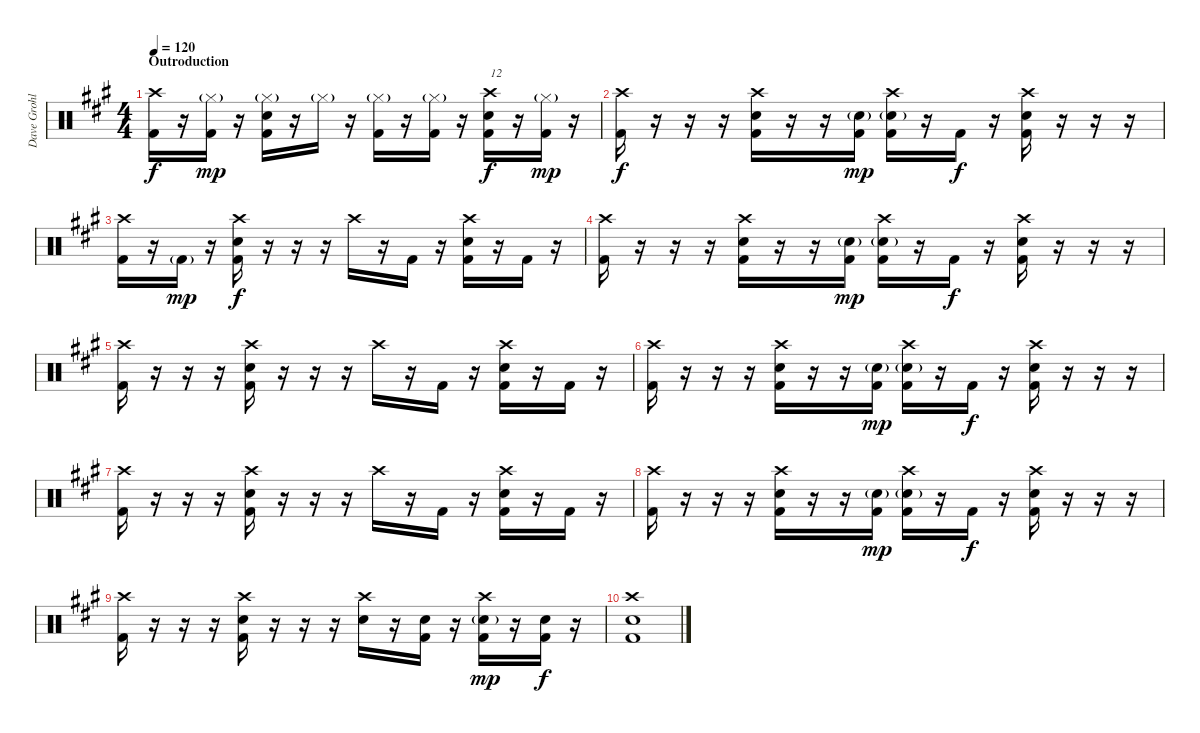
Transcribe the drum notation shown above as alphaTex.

\track ("Dave Grohl (Drums)" "Dave Grohl") {instrument percussion}
\staff {score}
\articulation defaults
\ts (4 4)
\section ("" "Outroduction")
\tempo 120
\clef neutral
\ks a
("Crash high (hit)" "Kick (hit) 2").16{dy f} r.16 ("Hi-Hat (closed)"{g} "Kick (hit) 2").16{dy mp} r.16 ("Hi-Hat (closed)"{g} "Snare (hit) 2" "Kick (hit) 2").16 r.16 "Hi-Hat (closed)"{g}.16 r.16 ("Hi-Hat (closed)"{g} "Kick (hit) 2").16 r.16 ("Hi-Hat (closed)"{g} "Kick (hit) 2").16 r.16 ("Crash high (hit)" "Snare (hit) 2" "Kick (hit) 2").16{txt "12" dy f volume 12} r.16 ("Hi-Hat (closed)"{g} "Kick (hit) 2").16{dy mp} r.16 |
("Crash high (hit)" "Kick (hit) 2").16{dy f} r.16 r.16 r.16 ("Crash high (hit)" "Snare (hit) 2" "Kick (hit) 2").16 r.16 r.16 ("Snare (hit) 2"{g} "Kick (hit) 2").16{dy mp} ("Crash high (hit)" "Snare (hit) 2"{g} "Kick (hit) 2").16 r.16 "Kick (hit) 2".16{dy f} r.16 ("Crash high (hit)" "Snare (hit) 2" "Kick (hit) 2").16 r.16 r.16 r.16 |
("Crash high (hit)" "Kick (hit) 2").16 r.16 "Kick (hit) 2"{g}.16{dy mp} r.16 ("Crash high (hit)" "Snare (hit) 2" "Kick (hit) 2").16{dy f} r.16 r.16 r.16 "Crash high (hit)".16 r.16 "Kick (hit) 2".16 r.16 ("Crash high (hit)" "Snare (hit) 2" "Kick (hit) 2").16 r.16 "Kick (hit) 2".16 r.16 |
("Crash high (hit)" "Kick (hit) 2").16 r.16 r.16 r.16 ("Crash high (hit)" "Snare (hit) 2" "Kick (hit) 2").16 r.16 r.16 ("Snare (hit) 2"{g} "Kick (hit) 2").16{dy mp} ("Crash high (hit)" "Snare (hit) 2"{g} "Kick (hit) 2").16 r.16 "Kick (hit) 2".16{dy f} r.16 ("Crash high (hit)" "Snare (hit) 2" "Kick (hit) 2").16 r.16 r.16 r.16 |
("Crash high (hit)" "Kick (hit) 2").16 r.16 r.16 r.16 ("Crash high (hit)" "Snare (hit) 2" "Kick (hit) 2").16 r.16 r.16 r.16 "Crash high (hit)".16 r.16 "Kick (hit) 2".16 r.16 ("Crash high (hit)" "Snare (hit) 2" "Kick (hit) 2").16 r.16 "Kick (hit) 2".16 r.16 |
("Crash high (hit)" "Kick (hit) 2").16 r.16 r.16 r.16 ("Crash high (hit)" "Snare (hit) 2" "Kick (hit) 2").16 r.16 r.16 ("Snare (hit) 2"{g} "Kick (hit) 2").16{dy mp} ("Crash high (hit)" "Snare (hit) 2"{g} "Kick (hit) 2").16 r.16 "Kick (hit) 2".16{dy f} r.16 ("Crash high (hit)" "Snare (hit) 2" "Kick (hit) 2").16 r.16 r.16 r.16 |
("Crash high (hit)" "Kick (hit) 2").16 r.16 r.16 r.16 ("Crash high (hit)" "Snare (hit) 2" "Kick (hit) 2").16 r.16 r.16 r.16 "Crash high (hit)".16 r.16 "Kick (hit) 2".16 r.16 ("Crash high (hit)" "Snare (hit) 2" "Kick (hit) 2").16 r.16 "Kick (hit) 2".16 r.16 |
("Crash high (hit)" "Kick (hit) 2").16 r.16 r.16 r.16 ("Crash high (hit)" "Snare (hit) 2" "Kick (hit) 2").16 r.16 r.16 ("Snare (hit) 2"{g} "Kick (hit) 2").16{dy mp} ("Crash high (hit)" "Snare (hit) 2"{g} "Kick (hit) 2").16 r.16 "Kick (hit) 2".16{dy f} r.16 ("Crash high (hit)" "Snare (hit) 2" "Kick (hit) 2").16 r.16 r.16 r.16 |
("Crash high (hit)" "Kick (hit) 2").16 r.16 r.16 r.16 ("Crash high (hit)" "Snare (hit) 2" "Kick (hit) 2").16 r.16 r.16 r.16 ("Crash high (hit)" "Snare (hit) 2").16 r.16 ("Snare (hit) 2" "Kick (hit) 2").16 r.16 ("Crash high (hit)" "Snare (hit) 2"{g} "Kick (hit) 2").16{dy mp} r.16 ("Snare (hit) 2" "Kick (hit) 2").16{dy f} r.16 |
("Crash high (hit)" "Snare (hit) 2" "Kick (hit) 2").1
